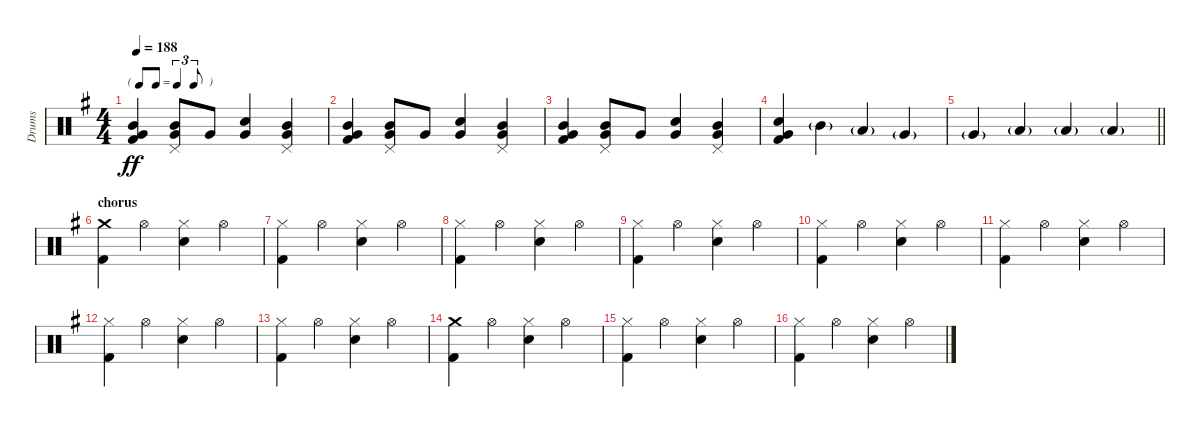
\track ("Drums" "Drums") {instrument percussion}
\staff {score}
\articulation defaults
\ts (4 4)
\tf triplet8th
\tempo 188
\clef neutral
\ks g
("Mid Tom (hit)" "Very Low Tom (hit)" "Kick (hit) 2").4{dy ff} ("Pedal Hi-Hat (hit)" "Mid Tom (hit)" "Very Low Tom (hit)").8 "Very Low Tom (hit)".8 ("Snare (hit) 2" "Very Low Tom (hit)").4 ("Pedal Hi-Hat (hit)" "Mid Tom (hit)" "Very Low Tom (hit)").4 |
("Mid Tom (hit)" "Very Low Tom (hit)" "Kick (hit) 2").4 ("Pedal Hi-Hat (hit)" "Mid Tom (hit)" "Very Low Tom (hit)").8 "Very Low Tom (hit)".8 ("Snare (hit) 2" "Very Low Tom (hit)").4 ("Pedal Hi-Hat (hit)" "Mid Tom (hit)" "Very Low Tom (hit)").4 |
("Mid Tom (hit)" "Very Low Tom (hit)" "Kick (hit) 2").4 ("Pedal Hi-Hat (hit)" "Mid Tom (hit)" "Very Low Tom (hit)").8 "Very Low Tom (hit)".8 ("Snare (hit) 2" "Very Low Tom (hit)").4 ("Pedal Hi-Hat (hit)" "Mid Tom (hit)" "Very Low Tom (hit)").4 |
("Snare (hit) 2" "Very Low Tom (hit)" "Kick (hit) 2").4 "Mid Tom (hit)"{g}.4 "Low Tom (hit)"{g}.4 "Very Low Tom (hit)"{g}.4 |
\barLineRight lightlight "Very Low Tom (hit)"{g}.4 "Low Floor Tom (hit)"{g}.4 "Low Floor Tom (hit)"{g}.4 "Low Floor Tom (hit)"{g}.4
|
\section ("" "chorus")
("Crash medium (hit)" "Kick (hit) 2").4 "Hi-Hat (open)".4 ("Hi-Hat (closed)" "Snare (hit) 2").4 "Hi-Hat (open)".4 |
("Hi-Hat (closed)" "Kick (hit) 2").4 "Hi-Hat (open)".4 ("Hi-Hat (closed)" "Snare (hit) 2").4 "Hi-Hat (open)".4 |
("Hi-Hat (closed)" "Kick (hit) 2").4 "Hi-Hat (open)".4 ("Hi-Hat (closed)" "Snare (hit) 2").4 "Hi-Hat (open)".4 |
("Hi-Hat (closed)" "Kick (hit) 2").4 "Hi-Hat (open)".4 ("Hi-Hat (closed)" "Snare (hit) 2").4 "Hi-Hat (open)".4 |
("Hi-Hat (closed)" "Kick (hit) 2").4 "Hi-Hat (open)".4 ("Hi-Hat (closed)" "Snare (hit) 2").4 "Hi-Hat (open)".4 |
("Hi-Hat (closed)" "Kick (hit) 2").4 "Hi-Hat (open)".4 ("Hi-Hat (closed)" "Snare (hit) 2").4 "Hi-Hat (open)".4 |
("Hi-Hat (closed)" "Kick (hit) 2").4 "Hi-Hat (open)".4 ("Hi-Hat (closed)" "Snare (hit) 2").4 "Hi-Hat (open)".4 |
("Hi-Hat (closed)" "Kick (hit) 2").4 "Hi-Hat (open)".4 ("Hi-Hat (closed)" "Snare (hit) 2").4 "Hi-Hat (open)".4 |
("Crash medium (hit)" "Kick (hit) 2").4 "Hi-Hat (open)".4 ("Hi-Hat (closed)" "Snare (hit) 2").4 "Hi-Hat (open)".4 |
("Hi-Hat (closed)" "Kick (hit) 2").4 "Hi-Hat (open)".4 ("Hi-Hat (closed)" "Snare (hit) 2").4 "Hi-Hat (open)".4 |
("Hi-Hat (closed)" "Kick (hit) 2").4 "Hi-Hat (open)".4 ("Hi-Hat (closed)" "Snare (hit) 2").4 "Hi-Hat (open)".4
